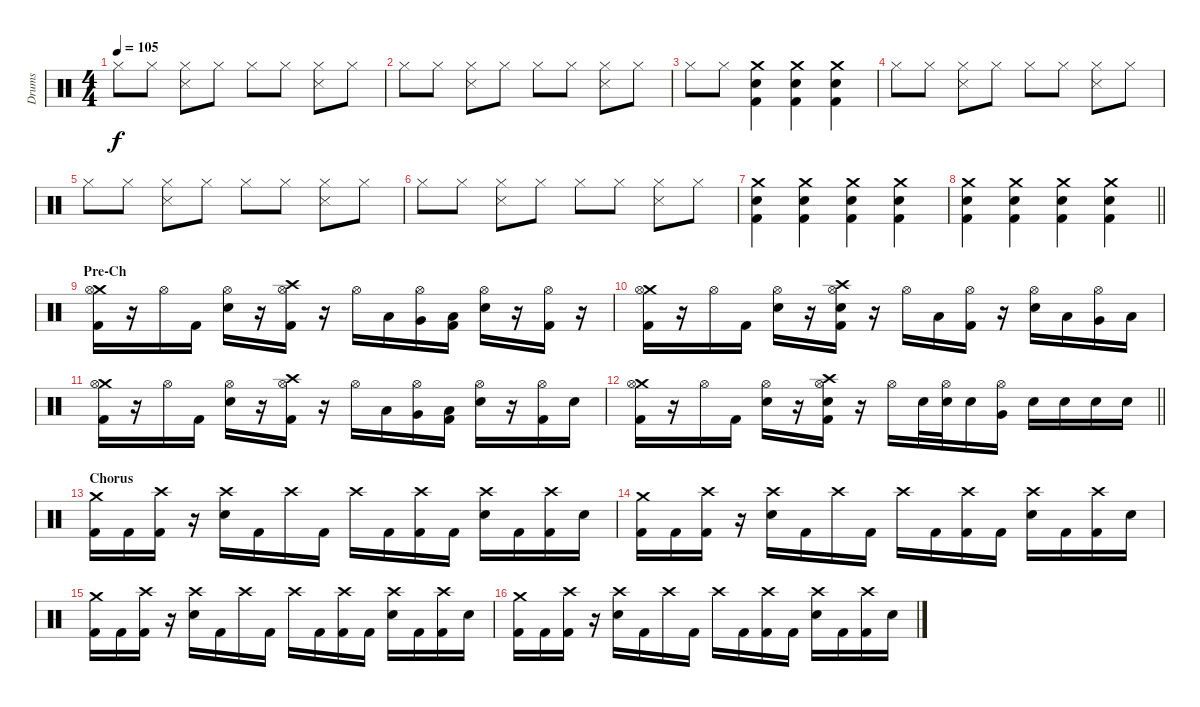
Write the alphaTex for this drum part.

\track ("Drums" "Drums") {instrument percussion}
\staff {score}
\articulation defaults
\ts (4 4)
\tempo 105
\clef neutral
\ks c "Hi-Hat (closed)".8{dy f} "Hi-Hat (closed)".8
("Hi-Hat (closed)" "Snare (side stick) 3").8 "Hi-Hat (closed)".8 "Hi-Hat (closed)".8 "Hi-Hat (closed)".8 ("Hi-Hat (closed)" "Snare (side stick) 3").8 "Hi-Hat (closed)".8 |
"Hi-Hat (closed)".8 "Hi-Hat (closed)".8 ("Hi-Hat (closed)" "Snare (side stick) 3").8 "Hi-Hat (closed)".8 "Hi-Hat (closed)".8 "Hi-Hat (closed)".8 ("Hi-Hat (closed)" "Snare (side stick) 3").8 "Hi-Hat (closed)".8 |
"Hi-Hat (closed)".8 "Hi-Hat (closed)".8 ("Crash medium (hit)" "Electric Snare (hit)" "Kick (hit) 2").4 ("Crash medium (hit)" "Electric Snare (hit)" "Kick (hit) 2").4 ("Crash medium (hit)" "Electric Snare (hit)" "Kick (hit) 2").4 |
"Hi-Hat (closed)".8 "Hi-Hat (closed)".8 ("Hi-Hat (closed)" "Snare (side stick) 3").8 "Hi-Hat (closed)".8 "Hi-Hat (closed)".8 "Hi-Hat (closed)".8 ("Hi-Hat (closed)" "Snare (side stick) 3").8 "Hi-Hat (closed)".8 |
"Hi-Hat (closed)".8 "Hi-Hat (closed)".8 ("Hi-Hat (closed)" "Snare (side stick) 3").8 "Hi-Hat (closed)".8 "Hi-Hat (closed)".8 "Hi-Hat (closed)".8 ("Hi-Hat (closed)" "Snare (side stick) 3").8 "Hi-Hat (closed)".8 |
"Hi-Hat (closed)".8 "Hi-Hat (closed)".8 ("Hi-Hat (closed)" "Snare (side stick) 3").8 "Hi-Hat (closed)".8 "Hi-Hat (closed)".8 "Hi-Hat (closed)".8 ("Hi-Hat (closed)" "Snare (side stick) 3").8 "Hi-Hat (closed)".8 |
("Crash medium (hit)" "Electric Snare (hit)" "Kick (hit) 2").4 ("Crash medium (hit)" "Electric Snare (hit)" "Kick (hit) 2").4 ("Crash medium (hit)" "Electric Snare (hit)" "Kick (hit) 2").4 ("Crash medium (hit)" "Electric Snare (hit)" "Kick (hit) 2").4 |
\barLineRight lightlight
("Crash medium (hit)" "Electric Snare (hit)" "Kick (hit) 2").4 ("Crash medium (hit)" "Electric Snare (hit)" "Kick (hit) 2").4 ("Crash medium (hit)" "Electric Snare (hit)" "Kick (hit) 2").4 ("Crash medium (hit)" "Electric Snare (hit)" "Kick (hit) 2").4 |
\section ("" "Pre-Ch")
("Crash medium (hit)" "Hi-Hat (open)" "Kick (hit) 2").16 r.16 "Hi-Hat (open)".16 "Kick (hit) 2".16 ("Hi-Hat (open)" "Electric Snare (hit)").16 r.16 ("Crash high (hit)" "Hi-Hat (open)" "Kick (hit) 2").16 r.16 "Hi-Hat (open)".16 "Low Tom (hit)".16 ("Hi-Hat (open)" "Very Low Tom (hit)").16 ("Low Floor Tom (hit)" "Kick (hit) 2").16 ("Hi-Hat (open)" "Electric Snare (hit)").16 r.16 ("Hi-Hat (open)" "Kick (hit) 2").16 r.16 |
("Crash medium (hit)" "Hi-Hat (open)" "Kick (hit) 2").16 r.16 "Hi-Hat (open)".16 "Kick (hit) 2".16 ("Hi-Hat (open)" "Electric Snare (hit)").16 r.16 ("Crash high (hit)" "Hi-Hat (open)" "Electric Snare (hit)" "Kick (hit) 2").16 r.16 "Hi-Hat (open)".16 "Low Tom (hit)".16 ("Hi-Hat (open)" "Kick (hit) 2").16 r.16 ("Hi-Hat (open)" "Electric Snare (hit)").16 "Low Tom (hit)".16 ("Hi-Hat (open)" "Very Low Tom (hit)").16 "Low Floor Tom (hit)".16 |
("Crash medium (hit)" "Hi-Hat (open)" "Kick (hit) 2").16 r.16 "Hi-Hat (open)".16 "Kick (hit) 2".16 ("Hi-Hat (open)" "Electric Snare (hit)").16 r.16 ("Crash high (hit)" "Hi-Hat (open)" "Kick (hit) 2").16 r.16 "Hi-Hat (open)".16 "Low Tom (hit)".16 ("Hi-Hat (open)" "Very Low Tom (hit)").16 ("Low Floor Tom (hit)" "Kick (hit) 2").16 ("Hi-Hat (open)" "Electric Snare (hit)").16 r.16 ("Hi-Hat (open)" "Kick (hit) 2").16 "Electric Snare (hit)".16 |
\barLineRight lightlight
("Crash medium (hit)" "Hi-Hat (open)" "Kick (hit) 2").16 r.16 "Hi-Hat (open)".16 "Kick (hit) 2".16 ("Hi-Hat (open)" "Electric Snare (hit)").16 r.16 ("Crash high (hit)" "Hi-Hat (open)" "Electric Snare (hit)" "Kick (hit) 2").16 r.16 "Hi-Hat (open)".16 "Electric Snare (hit)".32 ("Hi-Hat (open)" "Electric Snare (hit)").32 "Electric Snare (hit)".16 ("Hi-Hat (open)" "Very Low Tom (hit)").16 "Electric Snare (hit)".16 "Electric Snare (hit)".16 "Electric Snare (hit)".16 "Electric Snare (hit)".16 |
\section ("" "Chorus")
("Crash medium (hit)" "Kick (hit) 2").16 "Kick (hit) 2".16 ("Crash high (hit)" "Kick (hit) 2").16 r.16 ("Crash high (hit)" "Electric Snare (hit)").16 "Kick (hit) 2".16 "Crash high (hit)".16 "Kick (hit) 2".16 "Crash high (hit)".16 "Kick (hit) 2".16 ("Crash high (hit)" "Kick (hit) 2").16 "Kick (hit) 2".16 ("Crash high (hit)" "Electric Snare (hit)").16 "Kick (hit) 2".16 ("Crash high (hit)" "Kick (hit) 2").16 "Electric Snare (hit)".16 |
("Crash medium (hit)" "Kick (hit) 2").16 "Kick (hit) 2".16 ("Crash high (hit)" "Kick (hit) 2").16 r.16 ("Crash high (hit)" "Electric Snare (hit)").16 "Kick (hit) 2".16 "Crash high (hit)".16 "Kick (hit) 2".16 "Crash high (hit)".16 "Kick (hit) 2".16 ("Crash high (hit)" "Kick (hit) 2").16 "Kick (hit) 2".16 ("Crash high (hit)" "Electric Snare (hit)").16 "Kick (hit) 2".16 ("Crash high (hit)" "Kick (hit) 2").16 "Electric Snare (hit)".16 |
("Crash medium (hit)" "Kick (hit) 2").16 "Kick (hit) 2".16 ("Crash high (hit)" "Kick (hit) 2").16 r.16 ("Crash high (hit)" "Electric Snare (hit)").16 "Kick (hit) 2".16 "Crash high (hit)".16 "Kick (hit) 2".16 "Crash high (hit)".16 "Kick (hit) 2".16 ("Crash high (hit)" "Kick (hit) 2").16 "Kick (hit) 2".16 ("Crash high (hit)" "Electric Snare (hit)").16 "Kick (hit) 2".16 ("Crash high (hit)" "Kick (hit) 2").16 "Electric Snare (hit)".16 |
("Crash medium (hit)" "Kick (hit) 2").16 "Kick (hit) 2".16 ("Crash high (hit)" "Kick (hit) 2").16 r.16 ("Crash high (hit)" "Electric Snare (hit)").16 "Kick (hit) 2".16 "Crash high (hit)".16 "Kick (hit) 2".16 "Crash high (hit)".16 "Kick (hit) 2".16 ("Crash high (hit)" "Kick (hit) 2").16 "Kick (hit) 2".16 ("Crash high (hit)" "Electric Snare (hit)").16 "Kick (hit) 2".16 ("Crash high (hit)" "Kick (hit) 2").16 "Electric Snare (hit)".16
